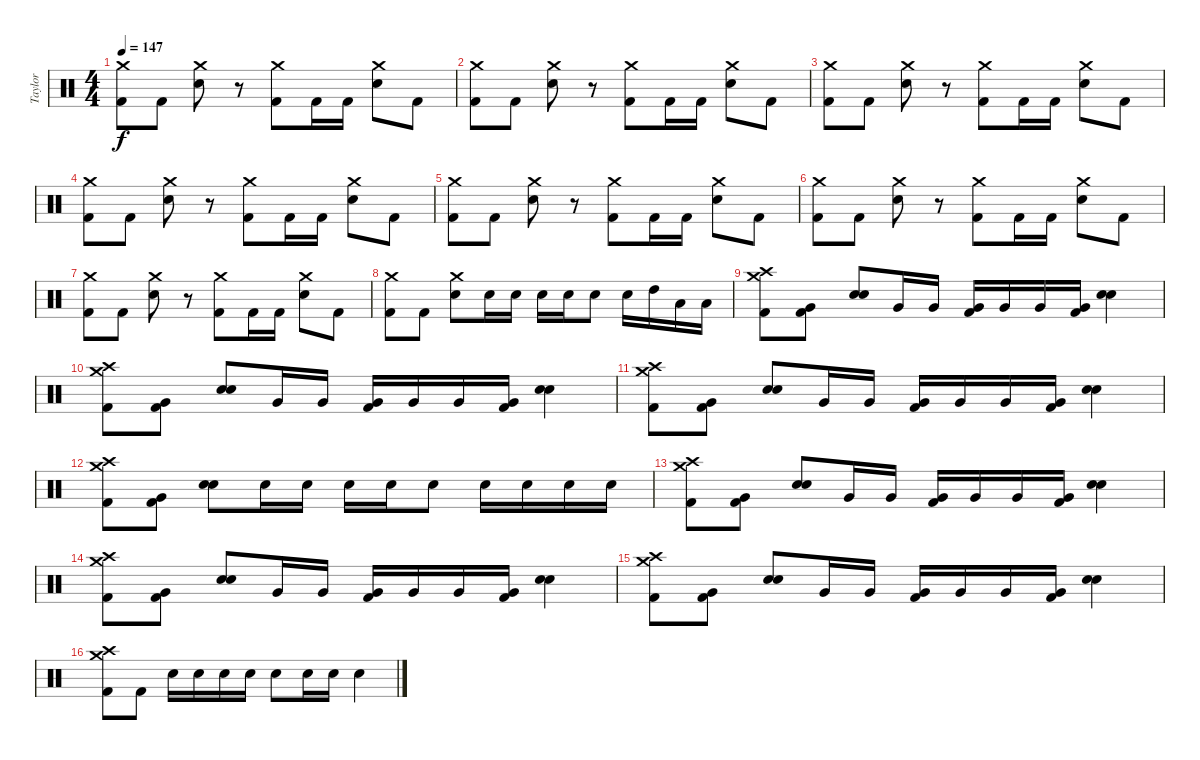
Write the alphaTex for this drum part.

\track ("Taylor" "Taylor") {instrument percussion}
\staff {score}
\articulation defaults
\ts (4 4)
\tempo 147
\clef neutral
\ks c
("Crash medium (hit)" "Kick (hit) 2").8{dy f} "Kick (hit) 2".8 ("Crash medium (hit)" "Electric Snare (hit)").8 r.8 ("Crash medium (hit)" "Kick (hit) 2").8 "Kick (hit) 2".16 "Kick (hit) 2".16 ("Crash medium (hit)" "Electric Snare (hit)").8 "Kick (hit) 2".8 |
("Crash medium (hit)" "Kick (hit) 2").8 "Kick (hit) 2".8 ("Crash medium (hit)" "Electric Snare (hit)").8 r.8 ("Crash medium (hit)" "Kick (hit) 2").8 "Kick (hit) 2".16 "Kick (hit) 2".16 ("Crash medium (hit)" "Electric Snare (hit)").8 "Kick (hit) 2".8 |
("Crash medium (hit)" "Kick (hit) 2").8 "Kick (hit) 2".8 ("Crash medium (hit)" "Electric Snare (hit)").8 r.8 ("Crash medium (hit)" "Kick (hit) 2").8 "Kick (hit) 2".16 "Kick (hit) 2".16 ("Crash medium (hit)" "Electric Snare (hit)").8 "Kick (hit) 2".8 |
("Crash medium (hit)" "Kick (hit) 2").8 "Kick (hit) 2".8 ("Crash medium (hit)" "Electric Snare (hit)").8 r.8 ("Crash medium (hit)" "Kick (hit) 2").8 "Kick (hit) 2".16 "Kick (hit) 2".16 ("Crash medium (hit)" "Electric Snare (hit)").8 "Kick (hit) 2".8 |
("Crash medium (hit)" "Kick (hit) 2").8 "Kick (hit) 2".8 ("Crash medium (hit)" "Electric Snare (hit)").8 r.8 ("Crash medium (hit)" "Kick (hit) 2").8 "Kick (hit) 2".16 "Kick (hit) 2".16 ("Crash medium (hit)" "Electric Snare (hit)").8 "Kick (hit) 2".8 |
("Crash medium (hit)" "Kick (hit) 2").8 "Kick (hit) 2".8 ("Crash medium (hit)" "Electric Snare (hit)").8 r.8 ("Crash medium (hit)" "Kick (hit) 2").8 "Kick (hit) 2".16 "Kick (hit) 2".16 ("Crash medium (hit)" "Electric Snare (hit)").8 "Kick (hit) 2".8 |
("Crash medium (hit)" "Kick (hit) 2").8 "Kick (hit) 2".8 ("Crash medium (hit)" "Electric Snare (hit)").8 r.8 ("Crash medium (hit)" "Kick (hit) 2").8 "Kick (hit) 2".16 "Kick (hit) 2".16 ("Crash medium (hit)" "Electric Snare (hit)").8 "Kick (hit) 2".8 |
("Crash medium (hit)" "Kick (hit) 2").8 "Kick (hit) 2".8 ("Crash medium (hit)" "Electric Snare (hit)").8 "Electric Snare (hit)".16 "Electric Snare (hit)".16 "Electric Snare (hit)".16 "Electric Snare (hit)".16 "Electric Snare (hit)".8 "Electric Snare (hit)".16 "High Tom (hit)".16 "Low Tom (hit)".16 "Low Tom (hit)".16 |
("Crash high (hit)" "Crash medium (hit)" "Kick (hit) 2").8 ("Very Low Tom (hit)" "Kick (hit) 2").8 ("Electric Snare (hit)" "Electric Snare (hit)").8{bu 240} "Very Low Tom (hit)".16 "Very Low Tom (hit)".16 ("Very Low Tom (hit)" "Kick (hit) 2").16 "Very Low Tom (hit)".16 "Very Low Tom (hit)".16 ("Very Low Tom (hit)" "Kick (hit) 2").16 ("Electric Snare (hit)" "Electric Snare (hit)").4{bu 240} |
("Crash high (hit)" "Crash medium (hit)" "Kick (hit) 2").8 ("Very Low Tom (hit)" "Kick (hit) 2").8 ("Electric Snare (hit)" "Electric Snare (hit)").8{bu 240} "Very Low Tom (hit)".16 "Very Low Tom (hit)".16 ("Very Low Tom (hit)" "Kick (hit) 2").16 "Very Low Tom (hit)".16 "Very Low Tom (hit)".16 ("Very Low Tom (hit)" "Kick (hit) 2").16 ("Electric Snare (hit)" "Electric Snare (hit)").4{bu 240} |
("Crash high (hit)" "Crash medium (hit)" "Kick (hit) 2").8 ("Very Low Tom (hit)" "Kick (hit) 2").8 ("Electric Snare (hit)" "Electric Snare (hit)").8{bu 240} "Very Low Tom (hit)".16 "Very Low Tom (hit)".16 ("Very Low Tom (hit)" "Kick (hit) 2").16 "Very Low Tom (hit)".16 "Very Low Tom (hit)".16 ("Very Low Tom (hit)" "Kick (hit) 2").16 ("Electric Snare (hit)" "Electric Snare (hit)").4{bu 240} |
("Crash high (hit)" "Crash medium (hit)" "Kick (hit) 2").8 ("Very Low Tom (hit)" "Kick (hit) 2").8 ("Electric Snare (hit)" "Electric Snare (hit)").8{bu 240} "Electric Snare (hit)".16 "Electric Snare (hit)".16 "Electric Snare (hit)".16 "Electric Snare (hit)".16 "Electric Snare (hit)".8 "Electric Snare (hit)".16 "Electric Snare (hit)".16 "Electric Snare (hit)".16 "Electric Snare (hit)".16 |
("Crash high (hit)" "Crash medium (hit)" "Kick (hit) 2").8 ("Very Low Tom (hit)" "Kick (hit) 2").8 ("Electric Snare (hit)" "Electric Snare (hit)").8{bu 240} "Very Low Tom (hit)".16 "Very Low Tom (hit)".16 ("Very Low Tom (hit)" "Kick (hit) 2").16 "Very Low Tom (hit)".16 "Very Low Tom (hit)".16 ("Very Low Tom (hit)" "Kick (hit) 2").16 ("Electric Snare (hit)" "Electric Snare (hit)").4{bu 240} |
("Crash high (hit)" "Crash medium (hit)" "Kick (hit) 2").8 ("Very Low Tom (hit)" "Kick (hit) 2").8 ("Electric Snare (hit)" "Electric Snare (hit)").8{bu 240} "Very Low Tom (hit)".16 "Very Low Tom (hit)".16 ("Very Low Tom (hit)" "Kick (hit) 2").16 "Very Low Tom (hit)".16 "Very Low Tom (hit)".16 ("Very Low Tom (hit)" "Kick (hit) 2").16 ("Electric Snare (hit)" "Electric Snare (hit)").4{bu 240} |
("Crash high (hit)" "Crash medium (hit)" "Kick (hit) 2").8 ("Very Low Tom (hit)" "Kick (hit) 2").8 ("Electric Snare (hit)" "Electric Snare (hit)").8{bu 240} "Very Low Tom (hit)".16 "Very Low Tom (hit)".16 ("Very Low Tom (hit)" "Kick (hit) 2").16 "Very Low Tom (hit)".16 "Very Low Tom (hit)".16 ("Very Low Tom (hit)" "Kick (hit) 2").16 ("Electric Snare (hit)" "Electric Snare (hit)").4{bu 240} |
("Crash high (hit)" "Crash medium (hit)" "Kick (hit) 2").8 "Kick (hit) 2".8 "Electric Snare (hit)".16 "Electric Snare (hit)".16 "Electric Snare (hit)".16 "Electric Snare (hit)".16 "Electric Snare (hit)".8 "Electric Snare (hit)".16 "Electric Snare (hit)".16 "Electric Snare (hit)".4
